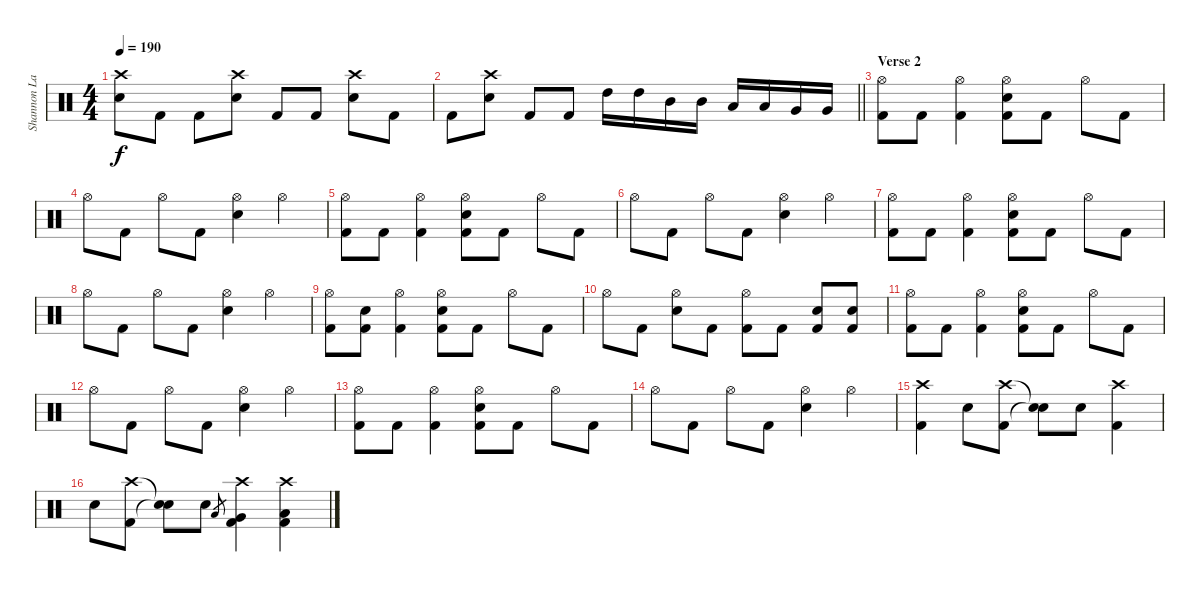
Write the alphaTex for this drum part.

\track ("Shannon Larkin" "Shannon La") {instrument percussion}
\staff {score}
\articulation defaults
\ts (4 4)
\tempo 190
\clef neutral
\ks c
("Crash high (hit)" "Snare (hit) 2").8{dy f} "Kick (hit) 2".8 "Kick (hit) 2".8 ("Crash high (hit)" "Snare (hit) 2").8 "Kick (hit) 2".8 "Kick (hit) 2".8 ("Crash high (hit)" "Snare (hit) 2").8 "Kick (hit) 2".8 |
\barLineRight lightlight "Kick (hit) 2".8
("Crash high (hit)" "Snare (hit) 2").8 "Kick (hit) 2".8 "Kick (hit) 2".8 "High Tom (hit)".16 "High Tom (hit)".16 "Mid Tom (hit)".16 "Mid Tom (hit)".16 "Low Tom (hit)".16 "Low Tom (hit)".16 "Very Low Tom (hit)".16 "Very Low Tom (hit)".16 |
\section ("" "Verse 2")
("Hi-Hat (open)" "Kick (hit) 2").8 "Kick (hit) 2".8 ("Hi-Hat (open)" "Kick (hit) 2").4 ("Hi-Hat (open)" "Snare (hit) 2" "Kick (hit) 2").8 "Kick (hit) 2".8 "Hi-Hat (open)".8 "Kick (hit) 2".8 |
"Hi-Hat (open)".8 "Kick (hit) 2".8 "Hi-Hat (open)".8 "Kick (hit) 2".8 ("Hi-Hat (open)" "Snare (hit) 2").4 "Hi-Hat (open)".4 |
("Hi-Hat (open)" "Kick (hit) 2").8 "Kick (hit) 2".8 ("Hi-Hat (open)" "Kick (hit) 2").4 ("Hi-Hat (open)" "Snare (hit) 2" "Kick (hit) 2").8 "Kick (hit) 2".8 "Hi-Hat (open)".8 "Kick (hit) 2".8 |
"Hi-Hat (open)".8 "Kick (hit) 2".8 "Hi-Hat (open)".8 "Kick (hit) 2".8 ("Hi-Hat (open)" "Snare (hit) 2").4 "Hi-Hat (open)".4 |
("Hi-Hat (open)" "Kick (hit) 2").8 "Kick (hit) 2".8 ("Hi-Hat (open)" "Kick (hit) 2").4 ("Hi-Hat (open)" "Snare (hit) 2" "Kick (hit) 2").8 "Kick (hit) 2".8 "Hi-Hat (open)".8 "Kick (hit) 2".8 |
"Hi-Hat (open)".8 "Kick (hit) 2".8 "Hi-Hat (open)".8 "Kick (hit) 2".8 ("Hi-Hat (open)" "Snare (hit) 2").4 "Hi-Hat (open)".4 |
("Hi-Hat (open)" "Kick (hit) 2").8 ("Snare (hit) 2" "Kick (hit) 2").8 ("Hi-Hat (open)" "Kick (hit) 2").4 ("Hi-Hat (open)" "Snare (hit) 2" "Kick (hit) 2").8 "Kick (hit) 2".8 "Hi-Hat (open)".8 "Kick (hit) 2".8 |
"Hi-Hat (open)".8 "Kick (hit) 2".8 ("Hi-Hat (open)" "Snare (hit) 2").8 "Kick (hit) 2".8 ("Hi-Hat (open)" "Kick (hit) 2").8 "Kick (hit) 2".8 ("Snare (hit) 2" "Kick (hit) 2").8 ("Snare (hit) 2" "Kick (hit) 2").8 |
("Hi-Hat (open)" "Kick (hit) 2").8 "Kick (hit) 2".8 ("Hi-Hat (open)" "Kick (hit) 2").4 ("Hi-Hat (open)" "Snare (hit) 2" "Kick (hit) 2").8 "Kick (hit) 2".8 "Hi-Hat (open)".8 "Kick (hit) 2".8 |
"Hi-Hat (open)".8 "Kick (hit) 2".8 "Hi-Hat (open)".8 "Kick (hit) 2".8 ("Hi-Hat (open)" "Snare (hit) 2").4 "Hi-Hat (open)".4 |
("Hi-Hat (open)" "Kick (hit) 2").8 "Kick (hit) 2".8 ("Hi-Hat (open)" "Kick (hit) 2").4 ("Hi-Hat (open)" "Snare (hit) 2" "Kick (hit) 2").8 "Kick (hit) 2".8 "Hi-Hat (open)".8 "Kick (hit) 2".8 |
"Hi-Hat (open)".8 "Kick (hit) 2".8 "Hi-Hat (open)".8 "Kick (hit) 2".8 ("Hi-Hat (open)" "Snare (hit) 2").4 "Hi-Hat (open)".4 |
("Crash high (hit)" "Kick (hit) 2").4 "Snare (hit) 2".8 ("Crash high (hit)" "Kick (hit) 2").8 ("Snare (hit)"{t} "Snare (hit)"{t}).8 "Snare (hit) 2".8 ("Crash high (hit)" "Kick (hit) 2").4 |
"Snare (hit) 2".8 ("Crash high (hit)" "Kick (hit) 2").8 ("Snare (hit)"{t} "Snare (hit)"{t}).8 "Snare (hit) 2".8 "Low Tom (hit)".8{gr} ("Crash high (hit)" "Very Low Tom (hit)" "Kick (hit) 2").4 ("Crash high (hit)" "Low Floor Tom (hit)" "Kick (hit) 2").4
